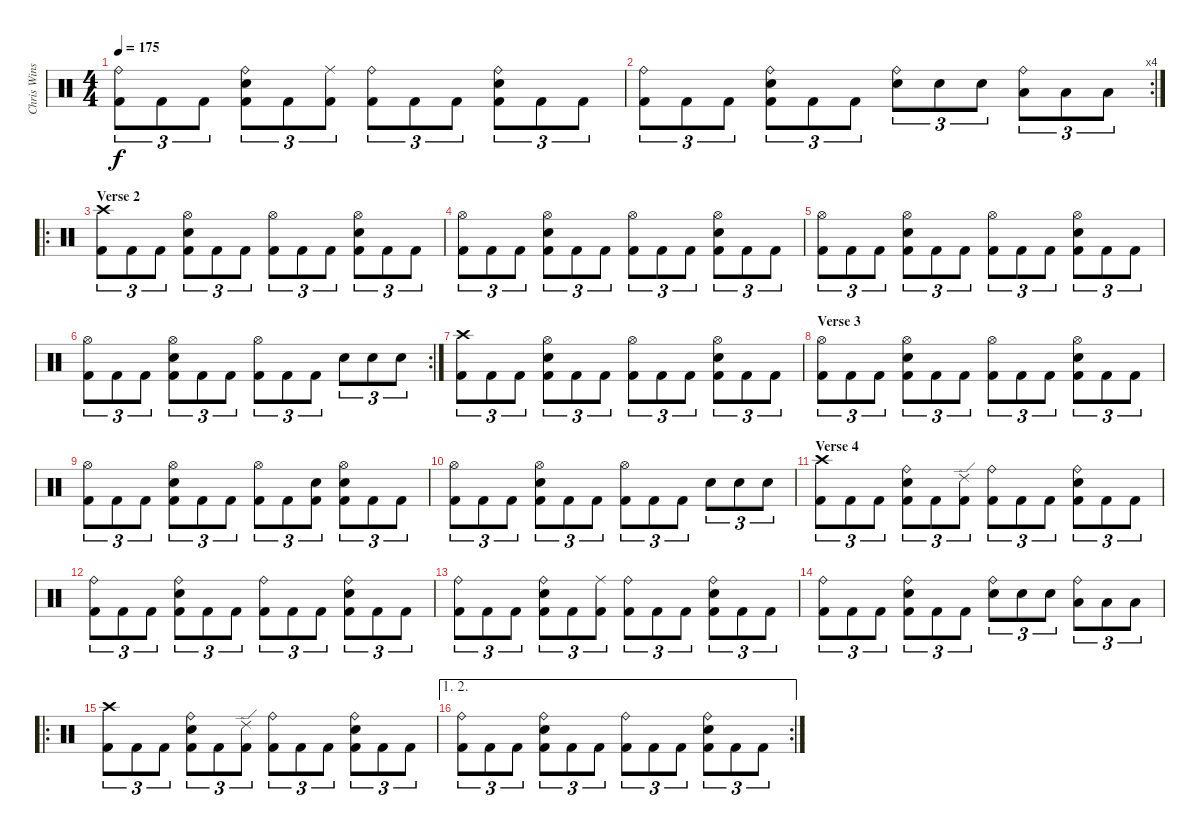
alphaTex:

\track ("Chris Winship (Drums)" "Chris Wins") {instrument percussion}
\staff {score}
\articulation defaults
\ts (4 4)
\tempo 175
\clef neutral
\ks c
("Ride (bell)" "Kick (hit) 2").8{tu (3 2) dy f} "Kick (hit) 2".8{tu (3 2)} "Kick (hit) 2".8{tu (3 2)} ("Ride (bell)" "Snare (hit) 2" "Kick (hit) 2").8{tu (3 2)} "Kick (hit) 2".8{tu (3 2)} ("Ride (middle)" "Kick (hit) 2").8{tu (3 2)} ("Ride (bell)" "Kick (hit) 2").8{tu (3 2)} "Kick (hit) 2".8{tu (3 2)} "Kick (hit) 2".8{tu (3 2)} ("Ride (bell)" "Snare (hit) 2" "Kick (hit) 2").8{tu (3 2)} "Kick (hit) 2".8{tu (3 2)} "Kick (hit) 2".8{tu (3 2)} |
\rc 4
("Ride (bell)" "Kick (hit) 2").8{tu (3 2)} "Kick (hit) 2".8{tu (3 2)} "Kick (hit) 2".8{tu (3 2)} ("Ride (bell)" "Snare (hit) 2" "Kick (hit) 2").8{tu (3 2)} "Kick (hit) 2".8{tu (3 2)} "Kick (hit) 2".8{tu (3 2)} ("Ride (bell)" "Snare (hit) 2").8{tu (3 2)} "Snare (hit) 2".8{tu (3 2)} "Snare (hit) 2".8{tu (3 2)} ("Ride (bell)" "Low Floor Tom (hit)").8{tu (3 2)} "Low Floor Tom (hit)".8{tu (3 2)} "Low Floor Tom (hit)".8{tu (3 2)} |
\ro
\section ("" "Verse 2")
("Crash high (hit)" "Kick (hit) 2").8{tu (3 2)} "Kick (hit) 2".8{tu (3 2)} "Kick (hit) 2".8{tu (3 2)} ("Hi-Hat (open)" "Snare (hit) 2" "Kick (hit) 2").8{tu (3 2)} "Kick (hit) 2".8{tu (3 2)} "Kick (hit) 2".8{tu (3 2)} ("Hi-Hat (open)" "Kick (hit) 2").8{tu (3 2)} "Kick (hit) 2".8{tu (3 2)} "Kick (hit) 2".8{tu (3 2)} ("Hi-Hat (open)" "Snare (hit) 2" "Kick (hit) 2").8{tu (3 2)} "Kick (hit) 2".8{tu (3 2)} "Kick (hit) 2".8{tu (3 2)} |
("Hi-Hat (open)" "Kick (hit) 2").8{tu (3 2)} "Kick (hit) 2".8{tu (3 2)} "Kick (hit) 2".8{tu (3 2)} ("Hi-Hat (open)" "Snare (hit) 2" "Kick (hit) 2").8{tu (3 2)} "Kick (hit) 2".8{tu (3 2)} "Kick (hit) 2".8{tu (3 2)} ("Hi-Hat (open)" "Kick (hit) 2").8{tu (3 2)} "Kick (hit) 2".8{tu (3 2)} "Kick (hit) 2".8{tu (3 2)} ("Hi-Hat (open)" "Snare (hit) 2" "Kick (hit) 2").8{tu (3 2)} "Kick (hit) 2".8{tu (3 2)} "Kick (hit) 2".8{tu (3 2)} |
("Hi-Hat (open)" "Kick (hit) 2").8{tu (3 2)} "Kick (hit) 2".8{tu (3 2)} "Kick (hit) 2".8{tu (3 2)} ("Hi-Hat (open)" "Snare (hit) 2" "Kick (hit) 2").8{tu (3 2)} "Kick (hit) 2".8{tu (3 2)} "Kick (hit) 2".8{tu (3 2)} ("Hi-Hat (open)" "Kick (hit) 2").8{tu (3 2)} "Kick (hit) 2".8{tu (3 2)} "Kick (hit) 2".8{tu (3 2)} ("Hi-Hat (open)" "Snare (hit) 2" "Kick (hit) 2").8{tu (3 2)} "Kick (hit) 2".8{tu (3 2)} "Kick (hit) 2".8{tu (3 2)} |
\rc 2
("Hi-Hat (open)" "Kick (hit) 2").8{tu (3 2)} "Kick (hit) 2".8{tu (3 2)} "Kick (hit) 2".8{tu (3 2)} ("Hi-Hat (open)" "Snare (hit) 2" "Kick (hit) 2").8{tu (3 2)} "Kick (hit) 2".8{tu (3 2)} "Kick (hit) 2".8{tu (3 2)} ("Hi-Hat (open)" "Kick (hit) 2").8{tu (3 2)} "Kick (hit) 2".8{tu (3 2)} "Kick (hit) 2".8{tu (3 2)} "Snare (hit) 2".8{tu (3 2)} "Snare (hit) 2".8{tu (3 2)} "Snare (hit) 2".8{tu (3 2)} |
("Crash high (hit)" "Kick (hit) 2").8{tu (3 2)} "Kick (hit) 2".8{tu (3 2)} "Kick (hit) 2".8{tu (3 2)} ("Hi-Hat (open)" "Snare (hit) 2" "Kick (hit) 2").8{tu (3 2)} "Kick (hit) 2".8{tu (3 2)} "Kick (hit) 2".8{tu (3 2)} ("Hi-Hat (open)" "Kick (hit) 2").8{tu (3 2)} "Kick (hit) 2".8{tu (3 2)} "Kick (hit) 2".8{tu (3 2)} ("Hi-Hat (open)" "Snare (hit) 2" "Kick (hit) 2").8{tu (3 2)} "Kick (hit) 2".8{tu (3 2)} "Kick (hit) 2".8{tu (3 2)} |
\section ("" "Verse 3")
("Hi-Hat (open)" "Kick (hit) 2").8{tu (3 2)} "Kick (hit) 2".8{tu (3 2)} "Kick (hit) 2".8{tu (3 2)} ("Hi-Hat (open)" "Snare (hit) 2" "Kick (hit) 2").8{tu (3 2)} "Kick (hit) 2".8{tu (3 2)} "Kick (hit) 2".8{tu (3 2)} ("Hi-Hat (open)" "Kick (hit) 2").8{tu (3 2)} "Kick (hit) 2".8{tu (3 2)} "Kick (hit) 2".8{tu (3 2)} ("Hi-Hat (open)" "Snare (hit) 2" "Kick (hit) 2").8{tu (3 2)} "Kick (hit) 2".8{tu (3 2)} "Kick (hit) 2".8{tu (3 2)} |
("Hi-Hat (open)" "Kick (hit) 2").8{tu (3 2)} "Kick (hit) 2".8{tu (3 2)} "Kick (hit) 2".8{tu (3 2)} ("Hi-Hat (open)" "Snare (hit) 2" "Kick (hit) 2").8{tu (3 2)} "Kick (hit) 2".8{tu (3 2)} "Kick (hit) 2".8{tu (3 2)} ("Hi-Hat (open)" "Kick (hit) 2").8{tu (3 2)} "Kick (hit) 2".8{tu (3 2)} ("Snare (hit) 2" "Kick (hit) 2").8{tu (3 2)} ("Hi-Hat (open)" "Snare (hit) 2" "Kick (hit) 2").8{tu (3 2)} "Kick (hit) 2".8{tu (3 2)} "Kick (hit) 2".8{tu (3 2)} |
("Hi-Hat (open)" "Kick (hit) 2").8{tu (3 2)} "Kick (hit) 2".8{tu (3 2)} "Kick (hit) 2".8{tu (3 2)} ("Hi-Hat (open)" "Snare (hit) 2" "Kick (hit) 2").8{tu (3 2)} "Kick (hit) 2".8{tu (3 2)} "Kick (hit) 2".8{tu (3 2)} ("Hi-Hat (open)" "Kick (hit) 2").8{tu (3 2)} "Kick (hit) 2".8{tu (3 2)} "Kick (hit) 2".8{tu (3 2)} "Snare (hit) 2".8{tu (3 2)} "Snare (hit) 2".8{tu (3 2)} "Snare (hit) 2".8{tu (3 2)} |
\section ("" "Verse 4")
("Crash high (hit)" "Kick (hit) 2").8{tu (3 2)} "Kick (hit) 2".8{tu (3 2)} "Kick (hit) 2".8{tu (3 2)} ("Ride (bell)" "Snare (hit) 2" "Kick (hit) 2").8{tu (3 2)} "Kick (hit) 2".8{tu (3 2)} ("Ride (edge) 2" "Kick (hit) 2").8{tu (3 2)} ("Ride (bell)" "Kick (hit) 2").8{tu (3 2)} "Kick (hit) 2".8{tu (3 2)} "Kick (hit) 2".8{tu (3 2)} ("Ride (bell)" "Snare (hit) 2" "Kick (hit) 2").8{tu (3 2)} "Kick (hit) 2".8{tu (3 2)} "Kick (hit) 2".8{tu (3 2)} |
("Ride (bell)" "Kick (hit) 2").8{tu (3 2)} "Kick (hit) 2".8{tu (3 2)} "Kick (hit) 2".8{tu (3 2)} ("Ride (bell)" "Snare (hit) 2" "Kick (hit) 2").8{tu (3 2)} "Kick (hit) 2".8{tu (3 2)} "Kick (hit) 2".8{tu (3 2)} ("Ride (bell)" "Kick (hit) 2").8{tu (3 2)} "Kick (hit) 2".8{tu (3 2)} "Kick (hit) 2".8{tu (3 2)} ("Ride (bell)" "Snare (hit) 2" "Kick (hit) 2").8{tu (3 2)} "Kick (hit) 2".8{tu (3 2)} "Kick (hit) 2".8{tu (3 2)} |
("Ride (bell)" "Kick (hit) 2").8{tu (3 2)} "Kick (hit) 2".8{tu (3 2)} "Kick (hit) 2".8{tu (3 2)} ("Ride (bell)" "Snare (hit) 2" "Kick (hit) 2").8{tu (3 2)} "Kick (hit) 2".8{tu (3 2)} ("Ride (middle)" "Kick (hit) 2").8{tu (3 2)} ("Ride (bell)" "Kick (hit) 2").8{tu (3 2)} "Kick (hit) 2".8{tu (3 2)} "Kick (hit) 2".8{tu (3 2)} ("Ride (bell)" "Snare (hit) 2" "Kick (hit) 2").8{tu (3 2)} "Kick (hit) 2".8{tu (3 2)} "Kick (hit) 2".8{tu (3 2)} |
("Ride (bell)" "Kick (hit) 2").8{tu (3 2)} "Kick (hit) 2".8{tu (3 2)} "Kick (hit) 2".8{tu (3 2)} ("Ride (bell)" "Snare (hit) 2" "Kick (hit) 2").8{tu (3 2)} "Kick (hit) 2".8{tu (3 2)} "Kick (hit) 2".8{tu (3 2)} ("Ride (bell)" "Snare (hit) 2").8{tu (3 2)} "Snare (hit) 2".8{tu (3 2)} "Snare (hit) 2".8{tu (3 2)} ("Ride (bell)" "Low Floor Tom (hit)").8{tu (3 2)} "Low Floor Tom (hit)".8{tu (3 2)} "Low Floor Tom (hit)".8{tu (3 2)} |
\ro
("Crash high (hit)" "Kick (hit) 2").8{tu (3 2)} "Kick (hit) 2".8{tu (3 2)} "Kick (hit) 2".8{tu (3 2)} ("Ride (bell)" "Snare (hit) 2" "Kick (hit) 2").8{tu (3 2)} "Kick (hit) 2".8{tu (3 2)} ("Ride (edge) 2" "Kick (hit) 2").8{tu (3 2)} ("Ride (bell)" "Kick (hit) 2").8{tu (3 2)} "Kick (hit) 2".8{tu (3 2)} "Kick (hit) 2".8{tu (3 2)} ("Ride (bell)" "Snare (hit) 2" "Kick (hit) 2").8{tu (3 2)} "Kick (hit) 2".8{tu (3 2)} "Kick (hit) 2".8{tu (3 2)} |
\ae (1 2)
\rc 2
("Ride (bell)" "Kick (hit) 2").8{tu (3 2)} "Kick (hit) 2".8{tu (3 2)} "Kick (hit) 2".8{tu (3 2)} ("Ride (bell)" "Snare (hit) 2" "Kick (hit) 2").8{tu (3 2)} "Kick (hit) 2".8{tu (3 2)} "Kick (hit) 2".8{tu (3 2)} ("Ride (bell)" "Kick (hit) 2").8{tu (3 2)} "Kick (hit) 2".8{tu (3 2)} "Kick (hit) 2".8{tu (3 2)} ("Ride (bell)" "Snare (hit) 2" "Kick (hit) 2").8{tu (3 2)} "Kick (hit) 2".8{tu (3 2)} "Kick (hit) 2".8{tu (3 2)}
